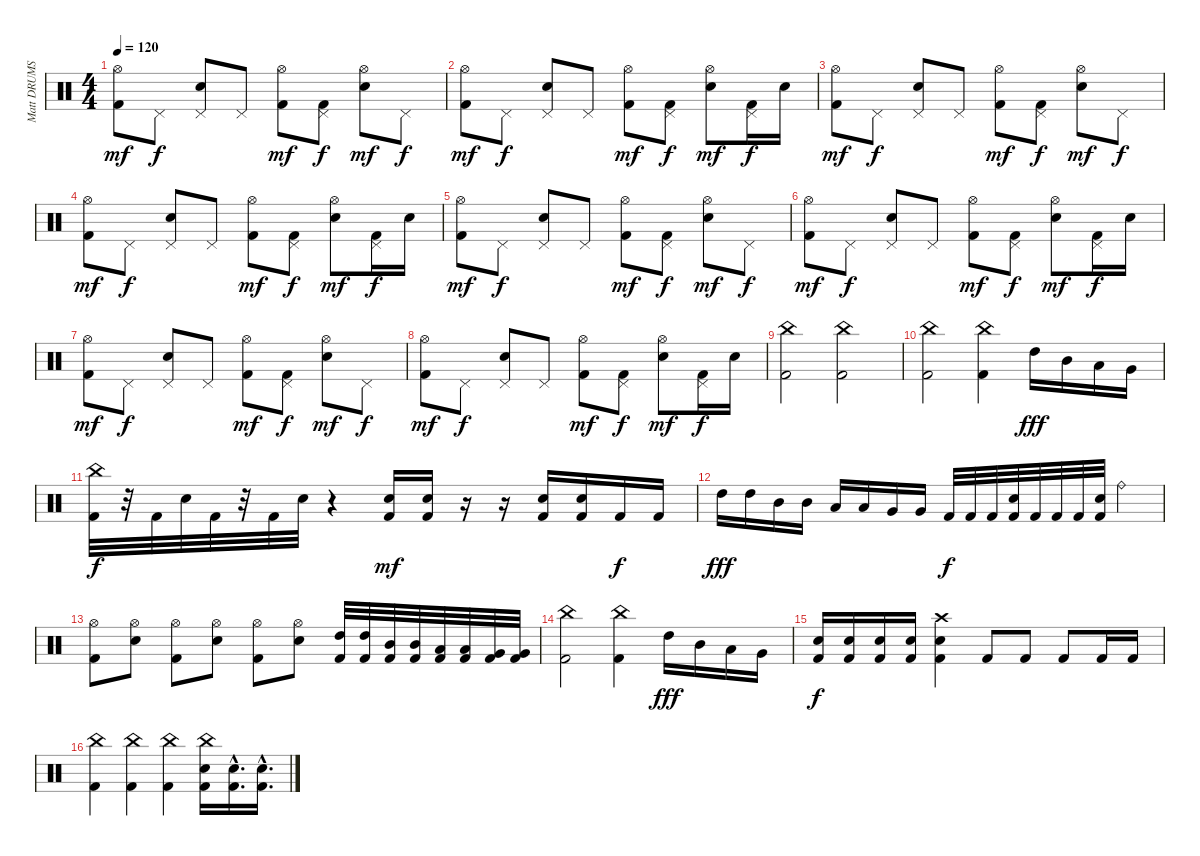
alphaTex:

\track ("Matt DRUMS" "Matt DRUMS") {instrument percussion}
\staff {score}
\articulation defaults
\ts (4 4)
\tempo 120
\clef neutral
\ks c
("Hi-Hat (open)" "Kick (hit) 2").8{dy mf} "Pedal Hi-Hat (hit)".8{dy f} ("Pedal Hi-Hat (hit)" "Snare (hit) 2").8 "Pedal Hi-Hat (hit)".8 ("Hi-Hat (open)" "Kick (hit) 2").8{dy mf} ("Pedal Hi-Hat (hit)" "Kick (hit) 2").8{dy f} ("Hi-Hat (open)" "Snare (hit) 2").8{dy mf} "Pedal Hi-Hat (hit)".8{dy f} |
("Hi-Hat (open)" "Kick (hit) 2").8{dy mf} "Pedal Hi-Hat (hit)".8{dy f} ("Pedal Hi-Hat (hit)" "Snare (hit) 2").8 "Pedal Hi-Hat (hit)".8 ("Hi-Hat (open)" "Kick (hit) 2").8{dy mf} ("Pedal Hi-Hat (hit)" "Kick (hit) 2").8{dy f} ("Hi-Hat (open)" "Snare (hit) 2").8{dy mf} ("Pedal Hi-Hat (hit)" "Kick (hit) 2").16{dy f} "Snare (hit) 2".16 |
("Hi-Hat (open)" "Kick (hit) 2").8{dy mf} "Pedal Hi-Hat (hit)".8{dy f} ("Pedal Hi-Hat (hit)" "Snare (hit) 2").8 "Pedal Hi-Hat (hit)".8 ("Hi-Hat (open)" "Kick (hit) 2").8{dy mf} ("Pedal Hi-Hat (hit)" "Kick (hit) 2").8{dy f} ("Hi-Hat (open)" "Snare (hit) 2").8{dy mf} "Pedal Hi-Hat (hit)".8{dy f} |
("Hi-Hat (open)" "Kick (hit) 2").8{dy mf} "Pedal Hi-Hat (hit)".8{dy f} ("Pedal Hi-Hat (hit)" "Snare (hit) 2").8 "Pedal Hi-Hat (hit)".8 ("Hi-Hat (open)" "Kick (hit) 2").8{dy mf} ("Pedal Hi-Hat (hit)" "Kick (hit) 2").8{dy f} ("Hi-Hat (open)" "Snare (hit) 2").8{dy mf} ("Pedal Hi-Hat (hit)" "Kick (hit) 2").16{dy f} "Snare (hit) 2".16 |
("Hi-Hat (open)" "Kick (hit) 2").8{dy mf} "Pedal Hi-Hat (hit)".8{dy f} ("Pedal Hi-Hat (hit)" "Snare (hit) 2").8 "Pedal Hi-Hat (hit)".8 ("Hi-Hat (open)" "Kick (hit) 2").8{dy mf} ("Pedal Hi-Hat (hit)" "Kick (hit) 2").8{dy f} ("Hi-Hat (open)" "Snare (hit) 2").8{dy mf} "Pedal Hi-Hat (hit)".8{dy f} |
("Hi-Hat (open)" "Kick (hit) 2").8{dy mf} "Pedal Hi-Hat (hit)".8{dy f} ("Pedal Hi-Hat (hit)" "Snare (hit) 2").8 "Pedal Hi-Hat (hit)".8 ("Hi-Hat (open)" "Kick (hit) 2").8{dy mf} ("Pedal Hi-Hat (hit)" "Kick (hit) 2").8{dy f} ("Hi-Hat (open)" "Snare (hit) 2").8{dy mf} ("Pedal Hi-Hat (hit)" "Kick (hit) 2").16{dy f} "Snare (hit) 2".16 |
("Hi-Hat (open)" "Kick (hit) 2").8{dy mf} "Pedal Hi-Hat (hit)".8{dy f} ("Pedal Hi-Hat (hit)" "Snare (hit) 2").8 "Pedal Hi-Hat (hit)".8 ("Hi-Hat (open)" "Kick (hit) 2").8{dy mf} ("Pedal Hi-Hat (hit)" "Kick (hit) 2").8{dy f} ("Hi-Hat (open)" "Snare (hit) 2").8{dy mf} "Pedal Hi-Hat (hit)".8{dy f} |
("Hi-Hat (open)" "Kick (hit) 2").8{dy mf} "Pedal Hi-Hat (hit)".8{dy f} ("Pedal Hi-Hat (hit)" "Snare (hit) 2").8 "Pedal Hi-Hat (hit)".8 ("Hi-Hat (open)" "Kick (hit) 2").8{dy mf} ("Pedal Hi-Hat (hit)" "Kick (hit) 2").8{dy f} ("Hi-Hat (open)" "Snare (hit) 2").8{dy mf} ("Pedal Hi-Hat (hit)" "Kick (hit) 2").16{dy f} "Snare (hit) 2".16 |
("China (hit)" "Kick (hit) 2").2 ("China (hit)" "Kick (hit) 2").2 |
("China (hit)" "Kick (hit) 2").2 ("China (hit)" "Kick (hit) 2").4 "High Tom (hit)".16{dy fff} "Mid Tom (hit)".16 "Low Tom (hit)".16 "Very Low Tom (hit)".16 |
("China (hit)" "Kick (hit) 2").32{dy f} r.32 "Kick (hit) 2".32 "Snare (hit) 2".32 "Kick (hit) 2".32 r.32 "Kick (hit) 2".32 "Snare (hit) 2".32 r.4 ("Snare (hit) 2" "Kick (hit) 2").16{dy mf} ("Snare (hit) 2" "Kick (hit) 2").16 r.16 r.16 ("Snare (hit) 2" "Kick (hit) 2").16 ("Snare (hit) 2" "Kick (hit) 2").16 "Kick (hit) 2".16{dy f} "Kick (hit) 2".16 |
"High Tom (hit)".16{dy fff} "High Tom (hit)".16 "Mid Tom (hit)".16 "Mid Tom (hit)".16 "Low Tom (hit)".16 "Low Tom (hit)".16 "Very Low Tom (hit)".16 "Very Low Tom (hit)".16 "Kick (hit) 2".32{dy f} "Kick (hit) 2".32 "Kick (hit) 2".32 ("Snare (hit) 2" "Kick (hit) 2").32 "Kick (hit) 2".32 "Kick (hit) 2".32 "Kick (hit) 2".32 ("Snare (hit) 2" "Kick (hit) 2").32 "Ride (bell)".4 |
("Hi-Hat (open)" "Kick (hit) 2").8 ("Hi-Hat (open)" "Snare (hit) 2").8 ("Hi-Hat (open)" "Kick (hit) 2").8 ("Hi-Hat (open)" "Snare (hit) 2").8 ("Hi-Hat (open)" "Kick (hit) 2").8 ("Hi-Hat (open)" "Snare (hit) 2").8 ("High Tom (hit)" "Kick (hit) 2").32 ("High Tom (hit)" "Kick (hit) 2").32 ("Mid Tom (hit)" "Kick (hit) 2").32 ("Mid Tom (hit)" "Kick (hit) 2").32 ("Low Tom (hit)" "Kick (hit) 2").32 ("Low Tom (hit)" "Kick (hit) 2").32 ("Very Low Tom (hit)" "Kick (hit) 2").32 ("Very Low Tom (hit)" "Kick (hit) 2").32 |
("China (hit)" "Kick (hit) 2").2 ("China (hit)" "Kick (hit) 2").4 "High Tom (hit)".16{dy fff} "Mid Tom (hit)".16 "Low Tom (hit)".16 "Very Low Tom (hit)".16 |
("Snare (hit) 2" "Kick (hit) 2").16{dy f} ("Snare (hit) 2" "Kick (hit) 2").16 ("Snare (hit) 2" "Kick (hit) 2").16 ("Snare (hit) 2" "Kick (hit) 2").16 ("Crash high (hit)" "Snare (hit) 2" "Kick (hit) 2").4 "Kick (hit) 2".8 "Kick (hit) 2".8 "Kick (hit) 2".8 "Kick (hit) 2".16 "Kick (hit) 2".16 |
("China (hit)" "Kick (hit) 2").4 ("China (hit)" "Kick (hit) 2").4 ("China (hit)" "Kick (hit) 2").4 ("China (hit)" "Snare (hit) 2" "Kick (hit) 2").16 ("Snare (hit) 2"{hac} "Kick (hit) 2"{hac}).16{d} ("Snare (hit) 2"{hac} "Kick (hit) 2"{hac}).16{d}
